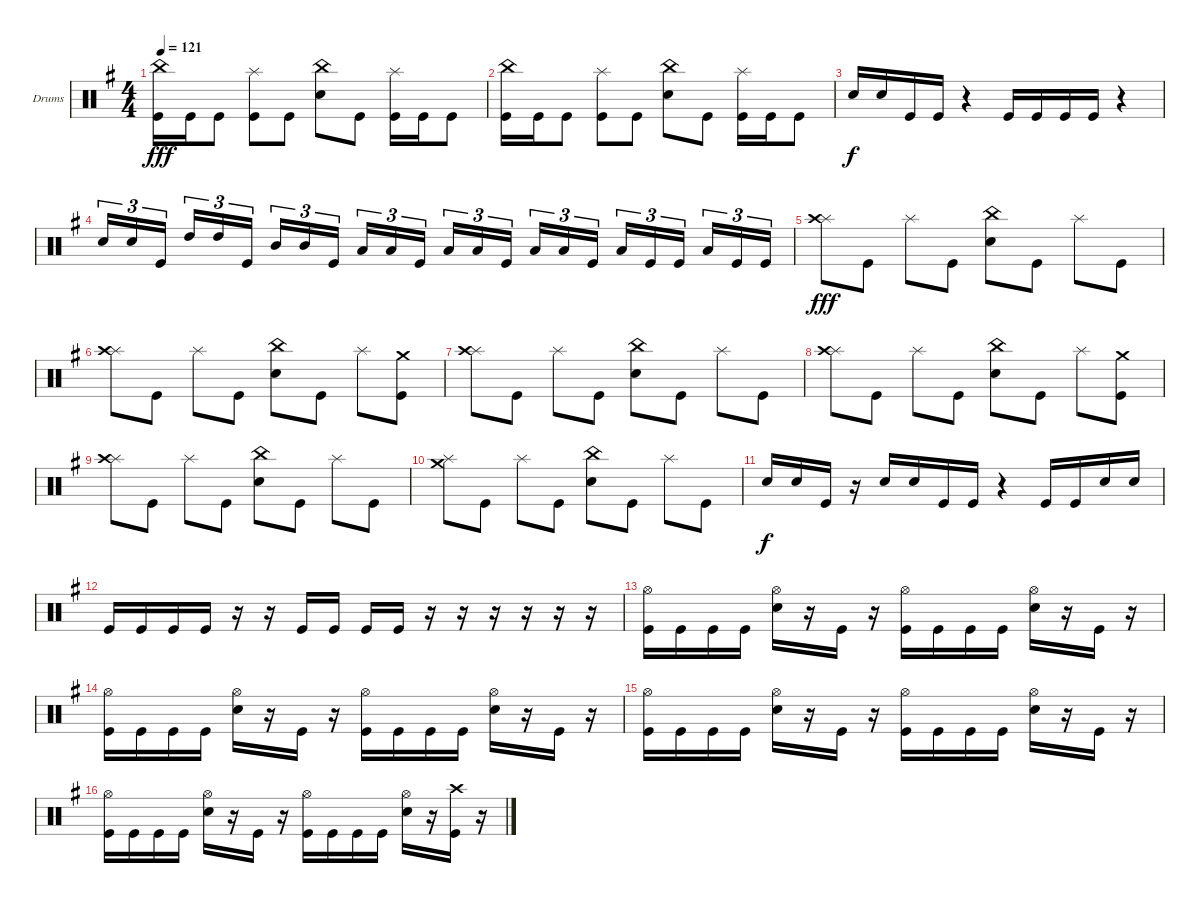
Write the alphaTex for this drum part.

\bracketExtendMode groupsimilarinstruments
\firstSystemTrackNameOrientation horizontal
\otherSystemsTrackNameOrientation horizontal
\track ("Drumkit" "Drums") {instrument percussion}
\staff {score}
\articulation defaults
\ts (4 4)
\tempo 121
\clef neutral
\scale
0.333333
\ks g
("China (hit)" "Kick (hit)").16{dy fff} "Kick (hit)".16 "Kick (hit)".8 ("Kick (hit)" "Splash (hit)").8 "Kick (hit)".8 ("China (hit)" "Snare (hit) 2").8 "Kick (hit)".8 ("Kick (hit)" "Splash (hit)").16 "Kick (hit)".16 "Kick (hit)".8 |
\scale
0.333333 ("China (hit)" "Kick (hit)").16 "Kick (hit)".16 "Kick (hit)".8 ("Kick (hit)" "Splash (hit)").8 "Kick (hit)".8 ("China (hit)" "Snare (hit) 2").8 "Kick (hit)".8 ("Kick (hit)" "Splash (hit)").16 "Kick (hit)".16 "Kick (hit)".8 |
\scale
0.333333 "Snare (hit) 2".16{dy f} "Snare (hit) 2".16 "Kick (hit)".16 "Kick (hit)".16 r.4 "Kick (hit)".16 "Kick (hit)".16 "Kick (hit)".16 "Kick (hit)".16 r.4 |
\scale
0.333333 "Snare (hit) 2".16{tu (3 2)} "Snare (hit) 2".16{tu (3 2)} "Kick (hit)".16{tu (3 2)} "High Tom (hit)".16{tu (3 2)} "High Tom (hit)".16{tu (3 2)} "Kick (hit)".16{tu (3 2)} "Mid Tom (hit)".16{tu (3 2)} "Mid Tom (hit)".16{tu (3 2)} "Kick (hit)".16{tu (3 2)} "Low Tom (hit)".16{tu (3 2)} "Low Tom (hit)".16{tu (3 2)} "Kick (hit)".16{tu (3 2)} "Low Tom (hit)".16{tu (3 2)} "Low Tom (hit)".16{tu (3 2)} "Kick (hit)".16{tu (3 2)} "Low Tom (hit)".16{tu (3 2)} "Low Tom (hit)".16{tu (3 2)} "Kick (hit)".16{tu (3 2)} "Low Tom (hit)".16{tu (3 2)} "Kick (hit)".16{tu (3 2)} "Kick (hit)".16{tu (3 2)} "Low Tom (hit)".16{tu (3 2)} "Kick (hit)".16{tu (3 2)} "Kick (hit)".16{tu (3 2)} |
\scale
0.333333 ("Splash (hit)" "Crash high (hit)").8{dy fff} "Kick (hit)".8 "Splash (hit)".8 "Kick (hit)".8 ("China (hit)" "Snare (hit) 2").8 "Kick (hit)".8 "Splash (hit)".8 "Kick (hit)".8 |
\scale
0.333333 ("Splash (hit)" "Crash high (hit)").8 "Kick (hit)".8 "Splash (hit)".8 "Kick (hit)".8 ("China (hit)" "Snare (hit) 2").8 "Kick (hit)".8 "Splash (hit)".8 ("Kick (hit)" "Crash medium (hit)").8 |
\scale
0.333333 ("Splash (hit)" "Crash high (hit)").8 "Kick (hit)".8 "Splash (hit)".8 "Kick (hit)".8 ("China (hit)" "Snare (hit) 2").8 "Kick (hit)".8 "Splash (hit)".8 "Kick (hit)".8 |
\scale
0.333333 ("Splash (hit)" "Crash high (hit)").8 "Kick (hit)".8 "Splash (hit)".8 "Kick (hit)".8 ("China (hit)" "Snare (hit) 2").8 "Kick (hit)".8 "Splash (hit)".8 ("Kick (hit)" "Crash medium (hit)").8 |
\scale
0.333333 ("Splash (hit)" "Crash high (hit)").8 "Kick (hit)".8 "Splash (hit)".8 "Kick (hit)".8 ("China (hit)" "Snare (hit) 2").8 "Kick (hit)".8 "Splash (hit)".8 "Kick (hit)".8 |
\scale
0.333333 ("Splash (hit)" "Crash medium (hit)").8 "Kick (hit)".8 "Splash (hit)".8 "Kick (hit)".8 ("China (hit)" "Snare (hit) 2").8 "Kick (hit)".8 "Splash (hit)".8 "Kick (hit)".8 |
\scale
0.333333 "Snare (hit) 2".16{dy f} "Snare (hit) 2".16 "Kick (hit)".16 r.16 "Snare (hit) 2".16 "Snare (hit) 2".16 "Kick (hit)".16 "Kick (hit)".16 r.4 "Kick (hit)".16 "Kick (hit)".16 "Snare (hit) 2".16 "Snare (hit) 2".16 |
\scale
0.333333 "Kick (hit)".16 "Kick (hit)".16 "Kick (hit)".16 "Kick (hit)".16 r.16 r.16 "Kick (hit)".16 "Kick (hit)".16 "Kick (hit)".16 "Kick (hit)".16 r.16 r.16 r.16 r.16 r.16 r.16 |
\scale
0.333333 ("Hi-Hat (open)" "Kick (hit)").16 "Kick (hit)".16 "Kick (hit)".16 "Kick (hit)".16 ("Hi-Hat (open)" "Snare (hit) 2").16 r.16 "Kick (hit)".16 r.16 ("Hi-Hat (open)" "Kick (hit)").16 "Kick (hit)".16 "Kick (hit)".16 "Kick (hit)".16 ("Hi-Hat (open)" "Snare (hit) 2").16 r.16 "Kick (hit)".16 r.16 |
\scale
0.333333 ("Hi-Hat (open)" "Kick (hit)").16 "Kick (hit)".16 "Kick (hit)".16 "Kick (hit)".16 ("Hi-Hat (open)" "Snare (hit) 2").16 r.16 "Kick (hit)".16 r.16 ("Hi-Hat (open)" "Kick (hit)").16 "Kick (hit)".16 "Kick (hit)".16 "Kick (hit)".16 ("Hi-Hat (open)" "Snare (hit) 2").16 r.16 "Kick (hit)".16 r.16 |
\scale
0.333333 ("Hi-Hat (open)" "Kick (hit)").16 "Kick (hit)".16 "Kick (hit)".16 "Kick (hit)".16 ("Hi-Hat (open)" "Snare (hit) 2").16 r.16 "Kick (hit)".16 r.16 ("Hi-Hat (open)" "Kick (hit)").16 "Kick (hit)".16 "Kick (hit)".16 "Kick (hit)".16 ("Hi-Hat (open)" "Snare (hit) 2").16 r.16 "Kick (hit)".16 r.16 |
\scale
0.333333 ("Hi-Hat (open)" "Kick (hit)").16 "Kick (hit)".16 "Kick (hit)".16 "Kick (hit)".16 ("Hi-Hat (open)" "Snare (hit) 2").16 r.16 "Kick (hit)".16 r.16 ("Hi-Hat (open)" "Kick (hit)").16 "Kick (hit)".16 "Kick (hit)".16 "Kick (hit)".16 ("Hi-Hat (open)" "Snare (hit) 2").16 r.16 ("Kick (hit)" "Crash high (hit)").16 r.16
